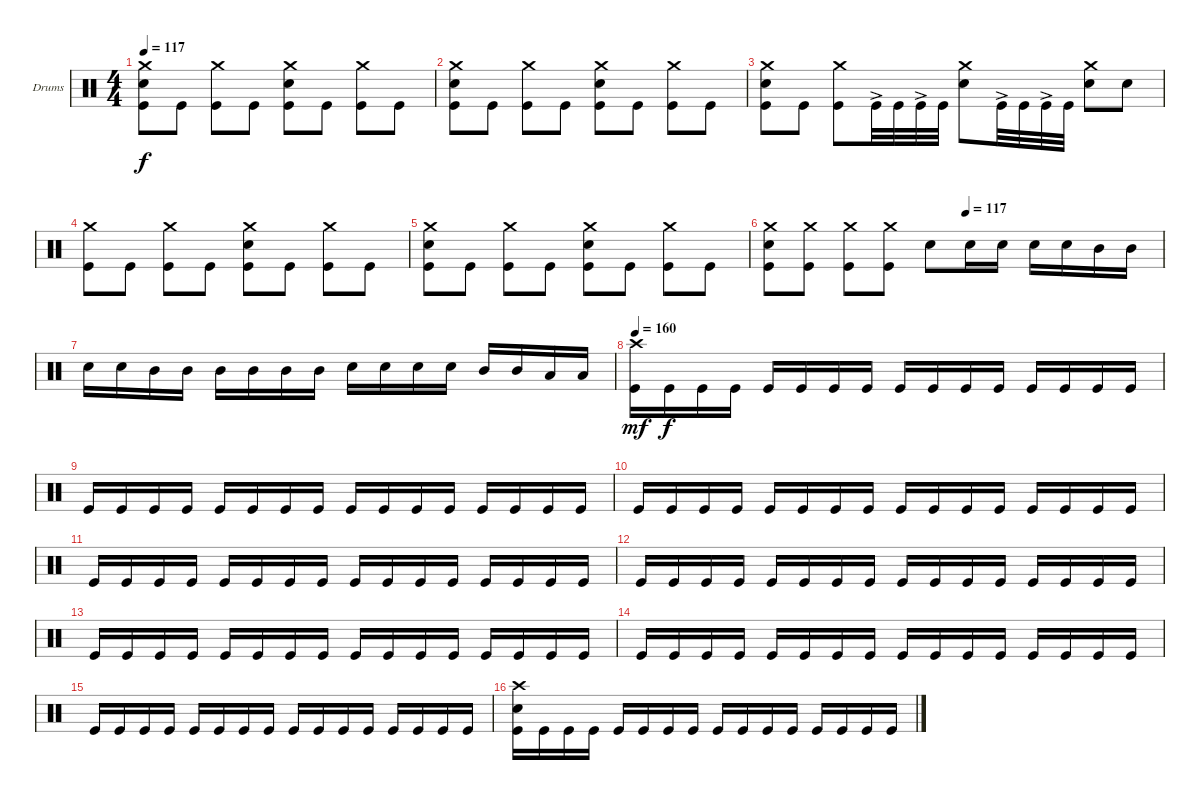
\defaultSystemsLayout 4
\bracketExtendMode groupsimilarinstruments
\firstSystemTrackNameOrientation horizontal
\otherSystemsTrackNameOrientation horizontal
\track ("Drumkit" "Drums") {instrument percussion}
\staff {score}
\articulation defaults
\ts (4 4)
\tempo 117
\clef neutral
\ks c
("Crash medium (hit)" "Snare (hit) 2" "Kick (hit)").8{dy f} "Kick (hit)".8 ("Crash medium (hit)" "Kick (hit)").8 "Kick (hit)".8 ("Crash medium (hit)" "Snare (hit) 2" "Kick (hit)").8 "Kick (hit)".8 ("Crash medium (hit)" "Kick (hit)").8 "Kick (hit)".8 |
("Crash medium (hit)" "Snare (hit) 2" "Kick (hit)").8 "Kick (hit)".8 ("Crash medium (hit)" "Kick (hit)").8 "Kick (hit)".8 ("Crash medium (hit)" "Snare (hit) 2" "Kick (hit)").8 "Kick (hit)".8 ("Crash medium (hit)" "Kick (hit)").8 "Kick (hit)".8 |
("Crash medium (hit)" "Snare (hit) 2" "Kick (hit)").8 "Kick (hit)".8 ("Crash medium (hit)" "Kick (hit)").8 "Kick (hit)"{ac}.32 "Kick (hit)".32 "Kick (hit)"{ac}.32 "Kick (hit)".32 ("Snare (hit) 2" "Crash medium (hit)").8 "Kick (hit)"{ac}.32 "Kick (hit)".32 "Kick (hit)"{ac}.32 "Kick (hit)".32 ("Snare (hit) 2" "Crash medium (hit)").8 "Snare (hit) 2".8 |
("Crash medium (hit)" "Kick (hit)").8 "Kick (hit)".8 ("Crash medium (hit)" "Kick (hit)").8 "Kick (hit)".8 ("Crash medium (hit)" "Snare (hit) 2" "Kick (hit)").8 "Kick (hit)".8 ("Crash medium (hit)" "Kick (hit)").8 "Kick (hit)".8 |
("Crash medium (hit)" "Snare (hit) 2" "Kick (hit)").8 "Kick (hit)".8 ("Crash medium (hit)" "Kick (hit)").8 "Kick (hit)".8 ("Crash medium (hit)" "Snare (hit) 2" "Kick (hit)").8 "Kick (hit)".8 ("Crash medium (hit)" "Kick (hit)").8 "Kick (hit)".8 |
\tempo (117 0.5)
("Crash medium (hit)" "Snare (hit) 2" "Kick (hit)").8 ("Crash medium (hit)" "Kick (hit)").8 ("Crash medium (hit)" "Kick (hit)").8 ("Crash medium (hit)" "Kick (hit)").8 "Snare (hit) 2".8 "Snare (hit) 2".16 "Snare (hit) 2".16 "Snare (hit) 2".16 "Snare (hit) 2".16 "Mid Tom (hit)".16 "Mid Tom (hit)".16 |
"Snare (hit) 2".16 "Snare (hit) 2".16 "Mid Tom (hit)".16 "Mid Tom (hit)".16 "Mid Tom (hit)".16 "Mid Tom (hit)".16 "Mid Tom (hit)".16 "Mid Tom (hit)".16 "Snare (hit) 2".16 "Snare (hit) 2".16 "Snare (hit) 2".16 "Snare (hit) 2".16 "Mid Tom (hit)".16 "Mid Tom (hit)".16 "Low Tom (hit)".16 "Low Tom (hit)".16 |
\tempo 160
("Crash high (hit)" "Kick (hit)").16{dy mf} "Kick (hit)".16{dy f} "Kick (hit)".16 "Kick (hit)".16 "Kick (hit)".16 "Kick (hit)".16 "Kick (hit)".16 "Kick (hit)".16 "Kick (hit)".16 "Kick (hit)".16 "Kick (hit)".16 "Kick (hit)".16 "Kick (hit)".16 "Kick (hit)".16 "Kick (hit)".16 "Kick (hit)".16 |
"Kick (hit)".16 "Kick (hit)".16 "Kick (hit)".16 "Kick (hit)".16 "Kick (hit)".16 "Kick (hit)".16 "Kick (hit)".16 "Kick (hit)".16 "Kick (hit)".16 "Kick (hit)".16 "Kick (hit)".16 "Kick (hit)".16 "Kick (hit)".16 "Kick (hit)".16 "Kick (hit)".16 "Kick (hit)".16 |
"Kick (hit)".16 "Kick (hit)".16 "Kick (hit)".16 "Kick (hit)".16 "Kick (hit)".16 "Kick (hit)".16 "Kick (hit)".16 "Kick (hit)".16 "Kick (hit)".16 "Kick (hit)".16 "Kick (hit)".16 "Kick (hit)".16 "Kick (hit)".16 "Kick (hit)".16 "Kick (hit)".16 "Kick (hit)".16 |
"Kick (hit)".16 "Kick (hit)".16 "Kick (hit)".16 "Kick (hit)".16 "Kick (hit)".16 "Kick (hit)".16 "Kick (hit)".16 "Kick (hit)".16 "Kick (hit)".16 "Kick (hit)".16 "Kick (hit)".16 "Kick (hit)".16 "Kick (hit)".16 "Kick (hit)".16 "Kick (hit)".16 "Kick (hit)".16 |
"Kick (hit)".16 "Kick (hit)".16 "Kick (hit)".16 "Kick (hit)".16 "Kick (hit)".16 "Kick (hit)".16 "Kick (hit)".16 "Kick (hit)".16 "Kick (hit)".16 "Kick (hit)".16 "Kick (hit)".16 "Kick (hit)".16 "Kick (hit)".16 "Kick (hit)".16 "Kick (hit)".16 "Kick (hit)".16 |
"Kick (hit)".16 "Kick (hit)".16 "Kick (hit)".16 "Kick (hit)".16 "Kick (hit)".16 "Kick (hit)".16 "Kick (hit)".16 "Kick (hit)".16 "Kick (hit)".16 "Kick (hit)".16 "Kick (hit)".16 "Kick (hit)".16 "Kick (hit)".16 "Kick (hit)".16 "Kick (hit)".16 "Kick (hit)".16 |
"Kick (hit)".16 "Kick (hit)".16 "Kick (hit)".16 "Kick (hit)".16 "Kick (hit)".16 "Kick (hit)".16 "Kick (hit)".16 "Kick (hit)".16 "Kick (hit)".16 "Kick (hit)".16 "Kick (hit)".16 "Kick (hit)".16 "Kick (hit)".16 "Kick (hit)".16 "Kick (hit)".16 "Kick (hit)".16 |
"Kick (hit)".16 "Kick (hit)".16 "Kick (hit)".16 "Kick (hit)".16 "Kick (hit)".16 "Kick (hit)".16 "Kick (hit)".16 "Kick (hit)".16 "Kick (hit)".16 "Kick (hit)".16 "Kick (hit)".16 "Kick (hit)".16 "Kick (hit)".16 "Kick (hit)".16 "Kick (hit)".16 "Kick (hit)".16 |
("Crash high (hit)" "Snare (hit) 2" "Kick (hit)").16 "Kick (hit)".16 "Kick (hit)".16 "Kick (hit)".16 "Kick (hit)".16 "Kick (hit)".16 "Kick (hit)".16 "Kick (hit)".16 "Kick (hit)".16 "Kick (hit)".16 "Kick (hit)".16 "Kick (hit)".16 "Kick (hit)".16 "Kick (hit)".16 "Kick (hit)".16 "Kick (hit)".16
